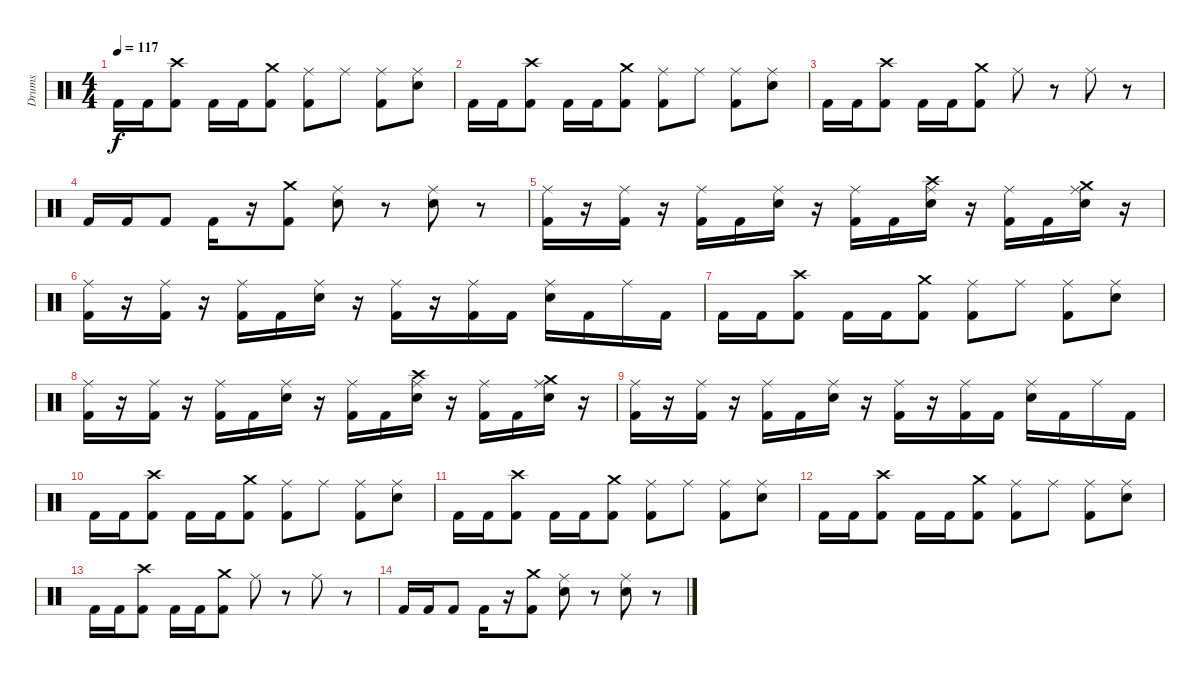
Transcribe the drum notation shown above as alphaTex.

\track ("Drums" "Drums") {instrument percussion}
\staff {score}
\articulation defaults
\ts (4 4)
\tempo 117
\clef neutral
\ks c "Kick (hit) 2".16{dy f} "Kick (hit) 2".16
("Crash high (hit)" "Kick (hit) 2").8 "Kick (hit) 2".16 "Kick (hit) 2".16 ("Crash medium (hit)" "Kick (hit) 2").8 ("Ride (middle)" "Kick (hit) 2").8 "Ride (middle)".8 ("Ride (middle)" "Kick (hit) 2").8 ("Ride (middle)" "Electric Snare (hit)").8 |
"Kick (hit) 2".16 "Kick (hit) 2".16 ("Crash high (hit)" "Kick (hit) 2").8 "Kick (hit) 2".16 "Kick (hit) 2".16 ("Crash medium (hit)" "Kick (hit) 2").8 ("Ride (middle)" "Kick (hit) 2").8 "Ride (middle)".8 ("Ride (middle)" "Kick (hit) 2").8 ("Ride (middle)" "Electric Snare (hit)").8 |
"Kick (hit) 2".16 "Kick (hit) 2".16 ("Crash high (hit)" "Kick (hit) 2").8 "Kick (hit) 2".16 "Kick (hit) 2".16 ("Crash medium (hit)" "Kick (hit) 2").8 "Ride (middle)".8 r.8 "Ride (middle)".8 r.8 |
"Kick (hit) 2".16 "Kick (hit) 2".16 "Kick (hit) 2".8 "Kick (hit) 2".16 r.16 ("Crash medium (hit)" "Kick (hit) 2").8 ("Ride (middle)" "Snare (hit) 2").8 r.8 ("Ride (middle)" "Snare (hit) 2").8 r.8 |
("Ride (middle)" "Kick (hit) 2").16 r.16 ("Ride (middle)" "Kick (hit) 2").16 r.16 ("Ride (middle)" "Kick (hit) 2").16 "Kick (hit) 2".16 ("Ride (middle)" "Electric Snare (hit)").16 r.16 ("Ride (middle)" "Kick (hit) 2").16 "Kick (hit) 2".16 ("Ride (middle)" "Crash high (hit)" "Electric Snare (hit)").16 r.16 ("Ride (middle)" "Kick (hit) 2").16 "Kick (hit) 2".16 ("Ride (middle)" "Crash medium (hit)" "Electric Snare (hit)").16 r.16 |
("Ride (middle)" "Kick (hit) 2").16 r.16 ("Ride (middle)" "Kick (hit) 2").16 r.16 ("Ride (middle)" "Kick (hit) 2").16 "Kick (hit) 2".16 ("Ride (middle)" "Electric Snare (hit)").16 r.16 ("Ride (middle)" "Kick (hit) 2").16 r.16 ("Ride (middle)" "Kick (hit) 2").16 "Kick (hit) 2".16 ("Ride (middle)" "Electric Snare (hit)").16 "Kick (hit) 2".16 "Ride (middle)".16 "Kick (hit) 2".16 |
"Kick (hit) 2".16 "Kick (hit) 2".16 ("Crash high (hit)" "Kick (hit) 2").8 "Kick (hit) 2".16 "Kick (hit) 2".16 ("Crash medium (hit)" "Kick (hit) 2").8 ("Ride (middle)" "Kick (hit) 2").8 "Ride (middle)".8 ("Ride (middle)" "Kick (hit) 2").8 ("Ride (middle)" "Electric Snare (hit)").8 |
("Ride (middle)" "Kick (hit) 2").16 r.16 ("Ride (middle)" "Kick (hit) 2").16 r.16 ("Ride (middle)" "Kick (hit) 2").16 "Kick (hit) 2".16 ("Ride (middle)" "Electric Snare (hit)").16 r.16 ("Ride (middle)" "Kick (hit) 2").16 "Kick (hit) 2".16 ("Ride (middle)" "Crash high (hit)" "Electric Snare (hit)").16 r.16 ("Ride (middle)" "Kick (hit) 2").16 "Kick (hit) 2".16 ("Ride (middle)" "Crash medium (hit)" "Electric Snare (hit)").16 r.16 |
("Ride (middle)" "Kick (hit) 2").16 r.16 ("Ride (middle)" "Kick (hit) 2").16 r.16 ("Ride (middle)" "Kick (hit) 2").16 "Kick (hit) 2".16 ("Ride (middle)" "Electric Snare (hit)").16 r.16 ("Ride (middle)" "Kick (hit) 2").16 r.16 ("Ride (middle)" "Kick (hit) 2").16 "Kick (hit) 2".16 ("Ride (middle)" "Electric Snare (hit)").16 "Kick (hit) 2".16 "Ride (middle)".16 "Kick (hit) 2".16 |
"Kick (hit) 2".16 "Kick (hit) 2".16 ("Crash high (hit)" "Kick (hit) 2").8 "Kick (hit) 2".16 "Kick (hit) 2".16 ("Crash medium (hit)" "Kick (hit) 2").8 ("Ride (middle)" "Kick (hit) 2").8 "Ride (middle)".8 ("Ride (middle)" "Kick (hit) 2").8 ("Ride (middle)" "Electric Snare (hit)").8 |
"Kick (hit) 2".16 "Kick (hit) 2".16 ("Crash high (hit)" "Kick (hit) 2").8 "Kick (hit) 2".16 "Kick (hit) 2".16 ("Crash medium (hit)" "Kick (hit) 2").8 ("Ride (middle)" "Kick (hit) 2").8 "Ride (middle)".8 ("Ride (middle)" "Kick (hit) 2").8 ("Ride (middle)" "Electric Snare (hit)").8 |
"Kick (hit) 2".16 "Kick (hit) 2".16 ("Crash high (hit)" "Kick (hit) 2").8 "Kick (hit) 2".16 "Kick (hit) 2".16 ("Crash medium (hit)" "Kick (hit) 2").8 ("Ride (middle)" "Kick (hit) 2").8 "Ride (middle)".8 ("Ride (middle)" "Kick (hit) 2").8 ("Ride (middle)" "Electric Snare (hit)").8 |
"Kick (hit) 2".16 "Kick (hit) 2".16 ("Crash high (hit)" "Kick (hit) 2").8 "Kick (hit) 2".16 "Kick (hit) 2".16 ("Crash medium (hit)" "Kick (hit) 2").8 "Ride (middle)".8 r.8 "Ride (middle)".8 r.8 |
"Kick (hit) 2".16 "Kick (hit) 2".16 "Kick (hit) 2".8 "Kick (hit) 2".16 r.16 ("Crash medium (hit)" "Kick (hit) 2").8 ("Ride (middle)" "Snare (hit) 2").8 r.8 ("Ride (middle)" "Snare (hit) 2").8 r.8
